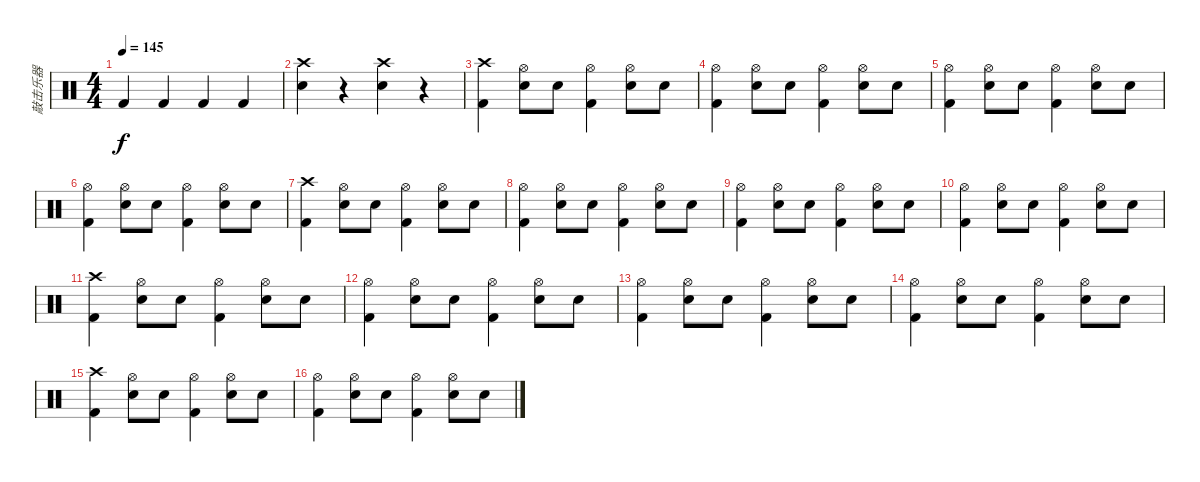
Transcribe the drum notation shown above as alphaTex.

\track ("敲击乐器" "敲击乐器") {instrument percussion}
\staff {score}
\articulation defaults
\ts (4 4)
\tempo 145
\clef neutral
\ks c "Kick (hit) 2".4{dy f} "Kick (hit) 2".4 "Kick (hit) 2".4 "Kick (hit) 2".4
|
("Crash high (hit)" "Snare (hit) 2").4 r.4 ("Crash high (hit)" "Snare (hit) 2").4 r.4 |
("Crash high (hit)" "Kick (hit) 2").4 ("Hi-Hat (open)" "Snare (hit) 2").8 "Snare (hit) 2".8 ("Hi-Hat (open)" "Kick (hit) 2").4 ("Hi-Hat (open)" "Snare (hit) 2").8 "Snare (hit) 2".8 |
("Hi-Hat (open)" "Kick (hit) 2").4 ("Hi-Hat (open)" "Snare (hit) 2").8 "Snare (hit) 2".8 ("Hi-Hat (open)" "Kick (hit) 2").4 ("Hi-Hat (open)" "Snare (hit) 2").8 "Snare (hit) 2".8 |
("Hi-Hat (open)" "Kick (hit) 2").4 ("Hi-Hat (open)" "Snare (hit) 2").8 "Snare (hit) 2".8 ("Hi-Hat (open)" "Kick (hit) 2").4 ("Hi-Hat (open)" "Snare (hit) 2").8 "Snare (hit) 2".8 |
("Hi-Hat (open)" "Kick (hit) 2").4 ("Hi-Hat (open)" "Snare (hit) 2").8 "Snare (hit) 2".8 ("Hi-Hat (open)" "Kick (hit) 2").4 ("Hi-Hat (open)" "Snare (hit) 2").8 "Snare (hit) 2".8 |
("Crash high (hit)" "Kick (hit) 2").4 ("Hi-Hat (open)" "Snare (hit) 2").8 "Snare (hit) 2".8 ("Hi-Hat (open)" "Kick (hit) 2").4 ("Hi-Hat (open)" "Snare (hit) 2").8 "Snare (hit) 2".8 |
("Hi-Hat (open)" "Kick (hit) 2").4 ("Hi-Hat (open)" "Snare (hit) 2").8 "Snare (hit) 2".8 ("Hi-Hat (open)" "Kick (hit) 2").4 ("Hi-Hat (open)" "Snare (hit) 2").8 "Snare (hit) 2".8 |
("Hi-Hat (open)" "Kick (hit) 2").4 ("Hi-Hat (open)" "Snare (hit) 2").8 "Snare (hit) 2".8 ("Hi-Hat (open)" "Kick (hit) 2").4 ("Hi-Hat (open)" "Snare (hit) 2").8 "Snare (hit) 2".8 |
("Hi-Hat (open)" "Kick (hit) 2").4 ("Hi-Hat (open)" "Snare (hit) 2").8 "Snare (hit) 2".8 ("Hi-Hat (open)" "Kick (hit) 2").4 ("Hi-Hat (open)" "Snare (hit) 2").8 "Snare (hit) 2".8 |
("Crash high (hit)" "Kick (hit) 2").4 ("Hi-Hat (open)" "Snare (hit) 2").8 "Snare (hit) 2".8 ("Hi-Hat (open)" "Kick (hit) 2").4 ("Hi-Hat (open)" "Snare (hit) 2").8 "Snare (hit) 2".8 |
("Hi-Hat (open)" "Kick (hit) 2").4 ("Hi-Hat (open)" "Snare (hit) 2").8 "Snare (hit) 2".8 ("Hi-Hat (open)" "Kick (hit) 2").4 ("Hi-Hat (open)" "Snare (hit) 2").8 "Snare (hit) 2".8 |
("Hi-Hat (open)" "Kick (hit) 2").4 ("Hi-Hat (open)" "Snare (hit) 2").8 "Snare (hit) 2".8 ("Hi-Hat (open)" "Kick (hit) 2").4 ("Hi-Hat (open)" "Snare (hit) 2").8 "Snare (hit) 2".8 |
("Hi-Hat (open)" "Kick (hit) 2").4 ("Hi-Hat (open)" "Snare (hit) 2").8 "Snare (hit) 2".8 ("Hi-Hat (open)" "Kick (hit) 2").4 ("Hi-Hat (open)" "Snare (hit) 2").8 "Snare (hit) 2".8 |
("Crash high (hit)" "Kick (hit) 2").4 ("Hi-Hat (open)" "Snare (hit) 2").8 "Snare (hit) 2".8 ("Hi-Hat (open)" "Kick (hit) 2").4 ("Hi-Hat (open)" "Snare (hit) 2").8 "Snare (hit) 2".8 |
("Hi-Hat (open)" "Kick (hit) 2").4 ("Hi-Hat (open)" "Snare (hit) 2").8 "Snare (hit) 2".8 ("Hi-Hat (open)" "Kick (hit) 2").4 ("Hi-Hat (open)" "Snare (hit) 2").8 "Snare (hit) 2".8
